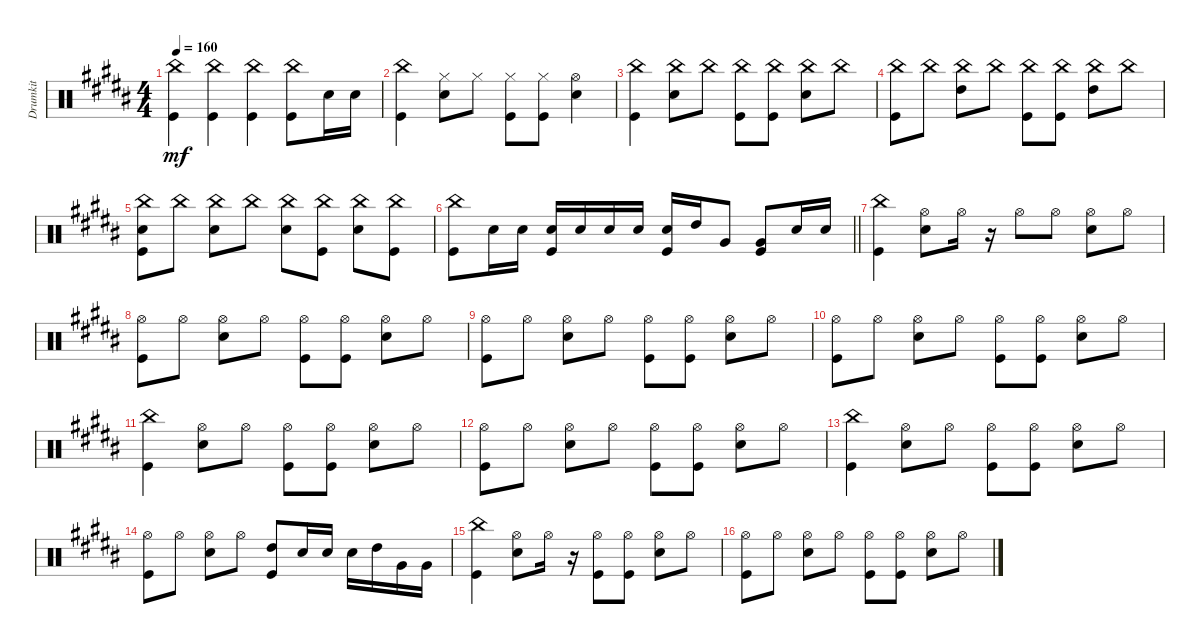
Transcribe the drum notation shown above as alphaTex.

\track ("Drumkit" "Drumkit") {instrument percussion}
\staff {score}
\articulation defaults
\ts (4 4)
\tempo 160
\clef neutral
\ks b
("China (hit)" "Kick (hit)").4{dy mf} ("China (hit)" "Kick (hit)").4 ("Kick (hit)" "China (hit)").4 ("China (hit)" "Kick (hit)").8 "Snare (hit) 2".16 "Snare (hit) 2".16 |
("China (hit)" "Kick (hit)").4 ("Snare (hit) 2" "Hi-Hat (closed)").8 "Hi-Hat (closed)".8 ("Hi-Hat (closed)" "Kick (hit)").8 ("Hi-Hat (closed)" "Kick (hit)").8 ("Hi-Hat (open)" "Snare (hit) 2").4 |
("Kick (hit)" "China (hit)").4 ("China (hit)" "Snare (hit) 2").8 "China (hit)".8 ("Kick (hit)" "China (hit)").8 ("Kick (hit)" "China (hit)").8 ("China (hit)" "Snare (hit) 2").8 "China (hit)".8 |
("China (hit)" "Kick (hit)").8 "China (hit)".8 ("China (hit)" "High Tom (hit)").8 "China (hit)".8 ("China (hit)" "Kick (hit)").8 ("China (hit)" "Kick (hit)").8 ("China (hit)" "High Tom (hit)").8 "China (hit)".8 |
("Snare (hit) 2" "Kick (hit)" "China (hit)").8 "China (hit)".8 ("China (hit)" "Snare (hit) 2").8 "China (hit)".8 ("China (hit)" "Snare (hit) 2").8 ("China (hit)" "Kick (hit)").8 ("China (hit)" "Snare (hit) 2").8 ("China (hit)" "Kick (hit)").8 |
\barLineRight lightlight
("China (hit)" "Kick (hit)").8 "Snare (hit) 2".16 "Snare (hit) 2".16 ("Snare (hit) 2" "Kick (hit)").16 "Snare (hit) 2".16 "Snare (hit) 2".16 "Snare (hit) 2".16 ("Kick (hit)" "Snare (hit) 2").16 "High Tom (hit)".16 "Very Low Tom (hit)".8 ("Kick (hit)" "Very Low Tom (hit)").8 "Snare (hit) 2".16 "Snare (hit) 2".16 |
\section ("" "")
("China (hit)" "Kick (hit)").4 ("Hi-Hat (open)" "Snare (hit) 2").8 "Hi-Hat (open)".16 r.16 "Hi-Hat (open)".8 "Hi-Hat (open)".8 ("Hi-Hat (open)" "Snare (hit) 2").8 "Hi-Hat (open)".8 |
("Hi-Hat (open)" "Kick (hit)").8 "Hi-Hat (open)".8 ("Hi-Hat (open)" "Snare (hit) 2").8 "Hi-Hat (open)".8 ("Hi-Hat (open)" "Kick (hit)").8 ("Hi-Hat (open)" "Kick (hit)").8 ("Hi-Hat (open)" "Snare (hit) 2").8 "Hi-Hat (open)".8 |
("Hi-Hat (open)" "Kick (hit)").8 "Hi-Hat (open)".8 ("Hi-Hat (open)" "Snare (hit) 2").8 "Hi-Hat (open)".8 ("Hi-Hat (open)" "Kick (hit)").8 ("Hi-Hat (open)" "Kick (hit)").8 ("Hi-Hat (open)" "Snare (hit) 2").8 "Hi-Hat (open)".8 |
("Hi-Hat (open)" "Kick (hit)").8 "Hi-Hat (open)".8 ("Hi-Hat (open)" "Snare (hit) 2").8 "Hi-Hat (open)".8 ("Hi-Hat (open)" "Kick (hit)").8 ("Hi-Hat (open)" "Kick (hit)").8 ("Hi-Hat (open)" "Snare (hit) 2").8 "Hi-Hat (open)".8 |
("China (hit)" "Kick (hit)").4 ("Snare (hit) 2" "Hi-Hat (open)").8 "Hi-Hat (open)".8 ("Hi-Hat (open)" "Kick (hit)").8 ("Hi-Hat (open)" "Kick (hit)").8 ("Hi-Hat (open)" "Snare (hit) 2").8 "Hi-Hat (open)".8 |
("Hi-Hat (open)" "Kick (hit)").8 "Hi-Hat (open)".8 ("Hi-Hat (open)" "Snare (hit) 2").8 "Hi-Hat (open)".8 ("Hi-Hat (open)" "Kick (hit)").8 ("Hi-Hat (open)" "Kick (hit)").8 ("Hi-Hat (open)" "Snare (hit) 2").8 "Hi-Hat (open)".8 |
("China (hit)" "Kick (hit)").4 ("Snare (hit) 2" "Hi-Hat (open)").8 "Hi-Hat (open)".8 ("Hi-Hat (open)" "Kick (hit)").8 ("Kick (hit)" "Hi-Hat (open)").8 ("Hi-Hat (open)" "Snare (hit) 2").8 "Hi-Hat (open)".8 |
("Kick (hit)" "Hi-Hat (open)").8 "Hi-Hat (open)".8 ("Hi-Hat (open)" "Snare (hit) 2").8 "Hi-Hat (open)".8 ("High Tom (hit)" "Kick (hit)").8 "Snare (hit) 2".16 "Snare (hit) 2".16 "Snare (hit) 2".16 "High Tom (hit)".16 "Very Low Tom (hit)".16 "Very Low Tom (hit)".16 |
("Kick (hit)" "China (hit)").4 ("Hi-Hat (open)" "Snare (hit) 2").8 "Hi-Hat (open)".16 r.16 ("Hi-Hat (open)" "Kick (hit)").8 ("Kick (hit)" "Hi-Hat (open)").8 ("Hi-Hat (open)" "Snare (hit) 2").8 "Hi-Hat (open)".8 |
("Hi-Hat (open)" "Kick (hit)").8 "Hi-Hat (open)".8 ("Hi-Hat (open)" "Snare (hit) 2").8 "Hi-Hat (open)".8 ("Hi-Hat (open)" "Kick (hit)").8 ("Kick (hit)" "Hi-Hat (open)").8 ("Hi-Hat (open)" "Snare (hit) 2").8 "Hi-Hat (open)".8
